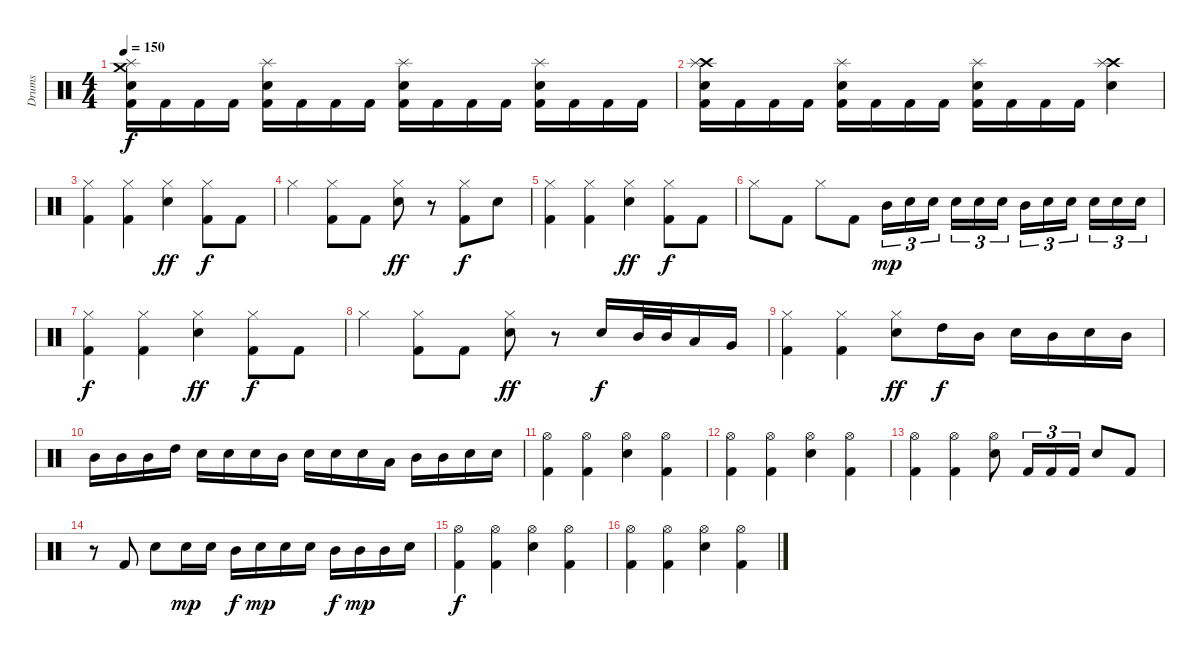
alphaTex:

\track ("Drums" "Drums") {instrument percussion}
\staff {score}
\articulation defaults
\ts (4 4)
\tempo 150
\clef neutral
\ks c
("Crash medium (hit)" "Splash (hit)" "Electric Snare (hit)" "Kick (hit) 2").16{dy f} "Kick (hit) 2".16 "Kick (hit) 2".16 "Kick (hit) 2".16 ("Splash (hit)" "Electric Snare (hit)" "Kick (hit) 2").16 "Kick (hit) 2".16 "Kick (hit) 2".16 "Kick (hit) 2".16 ("Splash (hit)" "Electric Snare (hit)" "Kick (hit) 2").16 "Kick (hit) 2".16 "Kick (hit) 2".16 "Kick (hit) 2".16 ("Splash (hit)" "Electric Snare (hit)" "Kick (hit) 2").16 "Kick (hit) 2".16 "Kick (hit) 2".16 "Kick (hit) 2".16 |
("Crash high (hit)" "Splash (hit)" "Electric Snare (hit)" "Kick (hit) 2").16 "Kick (hit) 2".16 "Kick (hit) 2".16 "Kick (hit) 2".16 ("Splash (hit)" "Electric Snare (hit)" "Kick (hit) 2").16 "Kick (hit) 2".16 "Kick (hit) 2".16 "Kick (hit) 2".16 ("Splash (hit)" "Electric Snare (hit)" "Kick (hit) 2").16 "Kick (hit) 2".16 "Kick (hit) 2".16 "Kick (hit) 2".16 ("Crash high (hit)" "Splash (hit)" "Electric Snare (hit)").4 |
("Hi-Hat (closed)" "Kick (hit) 2").4 ("Hi-Hat (closed)" "Kick (hit) 2").4 ("Hi-Hat (closed)" "Electric Snare (hit)").4{dy ff} ("Hi-Hat (closed)" "Kick (hit) 2").8{dy f} "Kick (hit) 2".8 |
"Hi-Hat (closed)".4 ("Hi-Hat (closed)" "Kick (hit) 2").8 "Kick (hit) 2".8 ("Hi-Hat (closed)" "Electric Snare (hit)").8{dy ff} r.8 ("Hi-Hat (closed)" "Kick (hit) 2").8{dy f} "Electric Snare (hit)".8 |
("Hi-Hat (closed)" "Kick (hit) 2").4 ("Hi-Hat (closed)" "Kick (hit) 2").4 ("Hi-Hat (closed)" "Electric Snare (hit)").4{dy ff} ("Hi-Hat (closed)" "Kick (hit) 2").8{dy f} "Kick (hit) 2".8 |
"Hi-Hat (closed)".8 "Kick (hit) 2".8 "Hi-Hat (closed)".8 "Kick (hit) 2".8 "Mid Tom (hit)".16{tu (3 2) dy mp} "Electric Snare (hit)".16{tu (3 2)} "Electric Snare (hit)".16{tu (3 2)} "Electric Snare (hit)".16{tu (3 2)} "Electric Snare (hit)".16{tu (3 2)} "Electric Snare (hit)".16{tu (3 2)} "Mid Tom (hit)".16{tu (3 2)} "Electric Snare (hit)".16{tu (3 2)} "Electric Snare (hit)".16{tu (3 2)} "Electric Snare (hit)".16{tu (3 2)} "Electric Snare (hit)".16{tu (3 2)} "Electric Snare (hit)".16{tu (3 2)} |
("Hi-Hat (closed)" "Kick (hit) 2").4{dy f} ("Hi-Hat (closed)" "Kick (hit) 2").4 ("Hi-Hat (closed)" "Electric Snare (hit)").4{dy ff} ("Hi-Hat (closed)" "Kick (hit) 2").8{dy f} "Kick (hit) 2".8 |
"Hi-Hat (closed)".4 ("Hi-Hat (closed)" "Kick (hit) 2").8 "Kick (hit) 2".8 ("Hi-Hat (closed)" "Electric Snare (hit)").8{dy ff} r.8 "Electric Snare (hit)".16{dy f} "Mid Tom (hit)".32 "Mid Tom (hit)".32 "Low Tom (hit)".16 "Very Low Tom (hit)".16 |
("Hi-Hat (closed)" "Kick (hit) 2").4 ("Hi-Hat (closed)" "Kick (hit) 2").4 ("Hi-Hat (closed)" "Electric Snare (hit)").8{dy ff} "High Tom (hit)".16{dy f} "Mid Tom (hit)".16 "Electric Snare (hit)".16 "Mid Tom (hit)".16 "Electric Snare (hit)".16 "Mid Tom (hit)".16 |
"Mid Tom (hit)".16 "Mid Tom (hit)".16 "Mid Tom (hit)".16 "High Tom (hit)".16 "Electric Snare (hit)".16 "Electric Snare (hit)".16 "Electric Snare (hit)".16 "Mid Tom (hit)".16 "Electric Snare (hit)".16 "Electric Snare (hit)".16 "Electric Snare (hit)".16 "Low Tom (hit)".16 "Mid Tom (hit)".16 "Mid Tom (hit)".16 "Electric Snare (hit)".16 "Electric Snare (hit)".16 |
("Hi-Hat (open)" "Kick (hit) 2").4 ("Hi-Hat (open)" "Kick (hit) 2").4 ("Hi-Hat (open)" "Electric Snare (hit)").4 ("Hi-Hat (open)" "Kick (hit) 2").4 |
("Hi-Hat (open)" "Kick (hit) 2").4 ("Hi-Hat (open)" "Kick (hit) 2").4 ("Hi-Hat (open)" "Electric Snare (hit)").4 ("Hi-Hat (open)" "Kick (hit) 2").4 |
("Hi-Hat (open)" "Kick (hit) 2").4 ("Hi-Hat (open)" "Kick (hit) 2").4 ("Hi-Hat (open)" "Electric Snare (hit)").8 "Kick (hit) 2".16{tu (3 2)} "Kick (hit) 2".16{tu (3 2)} "Kick (hit) 2".16{tu (3 2)} "Electric Snare (hit)".8 "Kick (hit) 2".8 |
r.8 "Kick (hit) 2".8 "Electric Snare (hit)".8 "Electric Snare (hit)".16{dy mp} "Electric Snare (hit)".16 "Mid Tom (hit)".16{dy f} "Electric Snare (hit)".16{dy mp} "Electric Snare (hit)".16 "Electric Snare (hit)".16 "Mid Tom (hit)".16{dy f} "Mid Tom (hit)".16{dy mp} "Mid Tom (hit)".16 "Electric Snare (hit)".16 |
("Hi-Hat (open)" "Kick (hit) 2").4{dy f} ("Hi-Hat (open)" "Kick (hit) 2").4 ("Hi-Hat (open)" "Electric Snare (hit)").4 ("Hi-Hat (open)" "Kick (hit) 2").4 |
("Hi-Hat (open)" "Kick (hit) 2").4 ("Hi-Hat (open)" "Kick (hit) 2").4 ("Hi-Hat (open)" "Electric Snare (hit)").4 ("Hi-Hat (open)" "Kick (hit) 2").4
